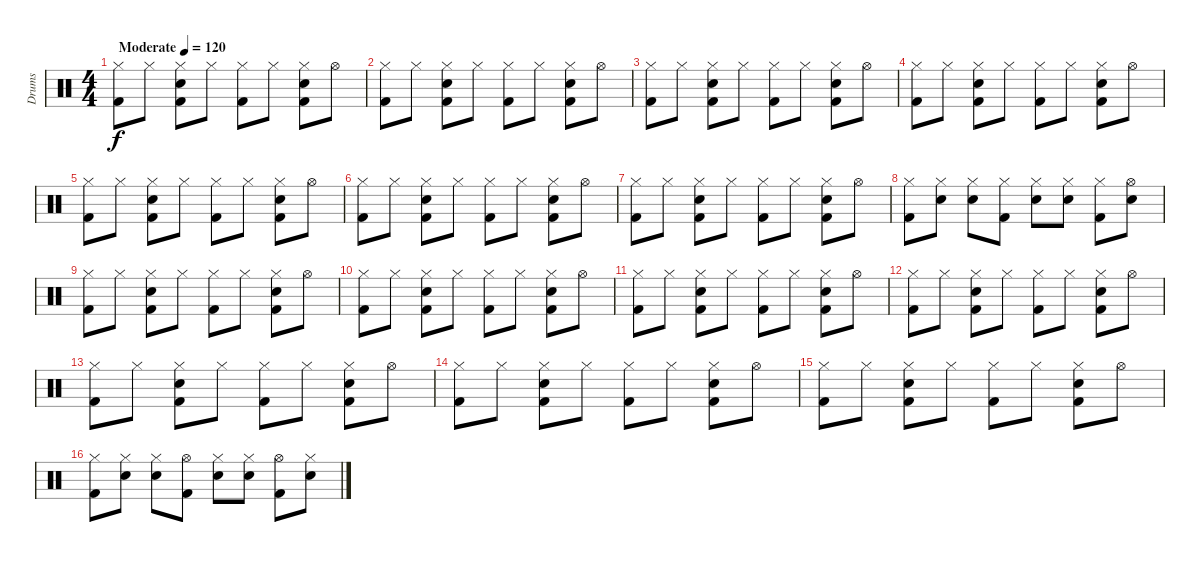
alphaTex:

\track ("Drums" "Drums") {instrument percussion}
\staff {score}
\articulation defaults
\ts (4 4)
\tempo (120 "Moderate")
\clef neutral
\ks c
("Hi-Hat (closed)" "Kick (hit) 2").8{dy f} "Hi-Hat (closed)".8 ("Hi-Hat (closed)" "Snare (hit) 2" "Kick (hit) 2").8 "Hi-Hat (closed)".8 ("Hi-Hat (closed)" "Kick (hit) 2").8 "Hi-Hat (closed)".8 ("Hi-Hat (closed)" "Snare (hit) 2" "Kick (hit) 2").8 "Hi-Hat (open)".8 |
("Hi-Hat (closed)" "Kick (hit) 2").8 "Hi-Hat (closed)".8 ("Hi-Hat (closed)" "Snare (hit) 2" "Kick (hit) 2").8 "Hi-Hat (closed)".8 ("Hi-Hat (closed)" "Kick (hit) 2").8 "Hi-Hat (closed)".8 ("Hi-Hat (closed)" "Snare (hit) 2" "Kick (hit) 2").8 "Hi-Hat (open)".8 |
("Hi-Hat (closed)" "Kick (hit) 2").8 "Hi-Hat (closed)".8 ("Hi-Hat (closed)" "Snare (hit) 2" "Kick (hit) 2").8 "Hi-Hat (closed)".8 ("Hi-Hat (closed)" "Kick (hit) 2").8 "Hi-Hat (closed)".8 ("Hi-Hat (closed)" "Snare (hit) 2" "Kick (hit) 2").8 "Hi-Hat (open)".8 |
("Hi-Hat (closed)" "Kick (hit) 2").8 "Hi-Hat (closed)".8 ("Hi-Hat (closed)" "Snare (hit) 2" "Kick (hit) 2").8 "Hi-Hat (closed)".8 ("Hi-Hat (closed)" "Kick (hit) 2").8 "Hi-Hat (closed)".8 ("Hi-Hat (closed)" "Snare (hit) 2" "Kick (hit) 2").8 "Hi-Hat (open)".8 |
("Hi-Hat (closed)" "Kick (hit) 2").8 "Hi-Hat (closed)".8 ("Hi-Hat (closed)" "Snare (hit) 2" "Kick (hit) 2").8 "Hi-Hat (closed)".8 ("Hi-Hat (closed)" "Kick (hit) 2").8 "Hi-Hat (closed)".8 ("Hi-Hat (closed)" "Snare (hit) 2" "Kick (hit) 2").8 "Hi-Hat (open)".8 |
("Hi-Hat (closed)" "Kick (hit) 2").8 "Hi-Hat (closed)".8 ("Hi-Hat (closed)" "Snare (hit) 2" "Kick (hit) 2").8 "Hi-Hat (closed)".8 ("Hi-Hat (closed)" "Kick (hit) 2").8 "Hi-Hat (closed)".8 ("Hi-Hat (closed)" "Snare (hit) 2" "Kick (hit) 2").8 "Hi-Hat (open)".8 |
("Hi-Hat (closed)" "Kick (hit) 2").8 "Hi-Hat (closed)".8 ("Hi-Hat (closed)" "Snare (hit) 2" "Kick (hit) 2").8 "Hi-Hat (closed)".8 ("Hi-Hat (closed)" "Kick (hit) 2").8 "Hi-Hat (closed)".8 ("Hi-Hat (closed)" "Snare (hit) 2" "Kick (hit) 2").8 "Hi-Hat (open)".8 |
("Hi-Hat (closed)" "Kick (hit) 2").8 ("Hi-Hat (closed)" "Snare (hit) 2").8 ("Hi-Hat (closed)" "Snare (hit) 2").8 ("Hi-Hat (closed)" "Kick (hit) 2").8 ("Hi-Hat (closed)" "Snare (hit) 2").8 ("Hi-Hat (closed)" "Snare (hit) 2").8 ("Hi-Hat (closed)" "Kick (hit) 2").8 ("Hi-Hat (open)" "Snare (hit) 2").8 |
("Hi-Hat (closed)" "Kick (hit) 2").8 "Hi-Hat (closed)".8 ("Hi-Hat (closed)" "Snare (hit) 2" "Kick (hit) 2").8 "Hi-Hat (closed)".8 ("Hi-Hat (closed)" "Kick (hit) 2").8 "Hi-Hat (closed)".8 ("Hi-Hat (closed)" "Snare (hit) 2" "Kick (hit) 2").8 "Hi-Hat (open)".8 |
("Hi-Hat (closed)" "Kick (hit) 2").8 "Hi-Hat (closed)".8 ("Hi-Hat (closed)" "Snare (hit) 2" "Kick (hit) 2").8 "Hi-Hat (closed)".8 ("Hi-Hat (closed)" "Kick (hit) 2").8 "Hi-Hat (closed)".8 ("Hi-Hat (closed)" "Snare (hit) 2" "Kick (hit) 2").8 "Hi-Hat (open)".8 |
("Hi-Hat (closed)" "Kick (hit) 2").8 "Hi-Hat (closed)".8 ("Hi-Hat (closed)" "Snare (hit) 2" "Kick (hit) 2").8 "Hi-Hat (closed)".8 ("Hi-Hat (closed)" "Kick (hit) 2").8 "Hi-Hat (closed)".8 ("Hi-Hat (closed)" "Snare (hit) 2" "Kick (hit) 2").8 "Hi-Hat (open)".8 |
("Hi-Hat (closed)" "Kick (hit) 2").8 "Hi-Hat (closed)".8 ("Hi-Hat (closed)" "Snare (hit) 2" "Kick (hit) 2").8 "Hi-Hat (closed)".8 ("Hi-Hat (closed)" "Kick (hit) 2").8 "Hi-Hat (closed)".8 ("Hi-Hat (closed)" "Snare (hit) 2" "Kick (hit) 2").8 "Hi-Hat (open)".8 |
("Hi-Hat (closed)" "Kick (hit) 2").8 "Hi-Hat (closed)".8 ("Hi-Hat (closed)" "Snare (hit) 2" "Kick (hit) 2").8 "Hi-Hat (closed)".8 ("Hi-Hat (closed)" "Kick (hit) 2").8 "Hi-Hat (closed)".8 ("Hi-Hat (closed)" "Snare (hit) 2" "Kick (hit) 2").8 "Hi-Hat (open)".8 |
("Hi-Hat (closed)" "Kick (hit) 2").8 "Hi-Hat (closed)".8 ("Hi-Hat (closed)" "Snare (hit) 2" "Kick (hit) 2").8 "Hi-Hat (closed)".8 ("Hi-Hat (closed)" "Kick (hit) 2").8 "Hi-Hat (closed)".8 ("Hi-Hat (closed)" "Snare (hit) 2" "Kick (hit) 2").8 "Hi-Hat (open)".8 |
("Hi-Hat (closed)" "Kick (hit) 2").8 "Hi-Hat (closed)".8 ("Hi-Hat (closed)" "Snare (hit) 2" "Kick (hit) 2").8 "Hi-Hat (closed)".8 ("Hi-Hat (closed)" "Kick (hit) 2").8 "Hi-Hat (closed)".8 ("Hi-Hat (closed)" "Snare (hit) 2" "Kick (hit) 2").8 "Hi-Hat (open)".8 |
("Hi-Hat (closed)" "Kick (hit) 2").8 ("Hi-Hat (closed)" "Snare (hit) 2").8 ("Hi-Hat (closed)" "Snare (hit) 2").8 ("Hi-Hat (open)" "Kick (hit) 2").8 ("Hi-Hat (closed)" "Snare (hit) 2").8 ("Hi-Hat (closed)" "Snare (hit) 2").8 ("Hi-Hat (open)" "Kick (hit) 2").8 ("Hi-Hat (closed)" "Snare (hit) 2").8
